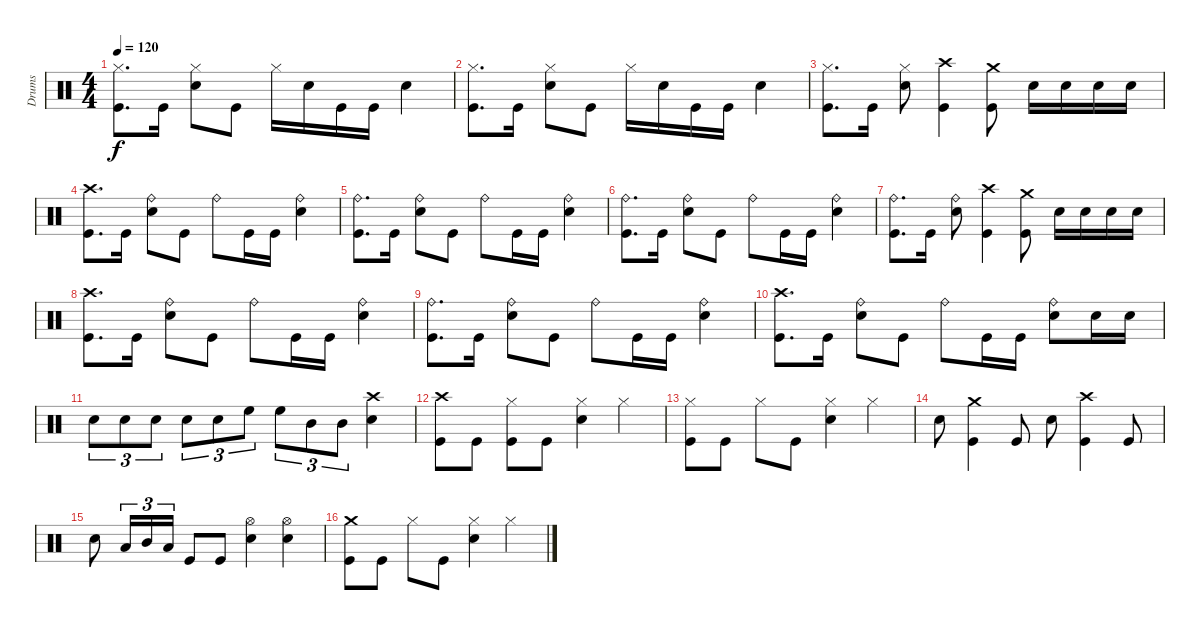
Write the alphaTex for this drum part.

\track ("Drums" "Drums") {instrument percussion}
\staff {score}
\articulation defaults
\ts (4 4)
\tempo 120
\clef neutral
\ks c
("Kick (hit)" "Hi-Hat (closed)").8{d dy f} "Kick (hit)".16 ("Snare (hit) 2" "Hi-Hat (closed)").8 "Kick (hit)".8 "Hi-Hat (closed)".16 "Snare (hit) 2".16 "Kick (hit)".16 "Kick (hit)".16 "Snare (hit) 2".4 |
("Kick (hit)" "Hi-Hat (closed)").8{d} "Kick (hit)".16 ("Snare (hit) 2" "Hi-Hat (closed)").8 "Kick (hit)".8 "Hi-Hat (closed)".16 "Snare (hit) 2".16 "Kick (hit)".16 "Kick (hit)".16 "Snare (hit) 2".4 |
("Kick (hit)" "Hi-Hat (closed)").8{d} "Kick (hit)".16 ("Snare (hit) 2" "Hi-Hat (closed)").8 ("Kick (hit)" "Crash high (hit)").4 ("Kick (hit)" "Crash medium (hit)").8 "Snare (hit) 2".16 "Snare (hit) 2".16 "Snare (hit) 2".16 "Snare (hit) 2".16 |
("Kick (hit)" "Crash high (hit)").8{d} "Kick (hit)".16 ("Snare (hit) 2" "Ride (bell)").8 "Kick (hit)".8 "Ride (bell)".8 "Kick (hit)".16 "Kick (hit)".16 ("Snare (hit) 2" "Ride (bell)").4 |
("Kick (hit)" "Ride (bell)").8{d} "Kick (hit)".16 ("Snare (hit) 2" "Ride (bell)").8 "Kick (hit)".8 "Ride (bell)".8 "Kick (hit)".16 "Kick (hit)".16 ("Snare (hit) 2" "Ride (bell)").4 |
("Kick (hit)" "Ride (bell)").8{d} "Kick (hit)".16 ("Snare (hit) 2" "Ride (bell)").8 "Kick (hit)".8 "Ride (bell)".8 "Kick (hit)".16 "Kick (hit)".16 ("Snare (hit) 2" "Ride (bell)").4 |
("Kick (hit)" "Ride (bell)").8{d} "Kick (hit)".16 ("Snare (hit) 2" "Ride (bell)").8 ("Kick (hit)" "Crash high (hit)").4 ("Kick (hit)" "Crash medium (hit)").8 "Snare (hit) 2".16 "Snare (hit) 2".16 "Snare (hit) 2".16 "Snare (hit) 2".16 |
("Kick (hit)" "Crash high (hit)").8{d} "Kick (hit)".16 ("Snare (hit) 2" "Ride (bell)").8 "Kick (hit)".8 "Ride (bell)".8 "Kick (hit)".16 "Kick (hit)".16 ("Snare (hit) 2" "Ride (bell)").4 |
("Kick (hit)" "Ride (bell)").8{d} "Kick (hit)".16 ("Snare (hit) 2" "Ride (bell)").8 "Kick (hit)".8 "Ride (bell)".8 "Kick (hit)".16 "Kick (hit)".16 ("Snare (hit) 2" "Ride (bell)").4 |
("Kick (hit)" "Crash high (hit)").8{d} "Kick (hit)".16 ("Snare (hit) 2" "Ride (bell)").8 "Kick (hit)".8 "Ride (bell)".8 "Kick (hit)".16 "Kick (hit)".16 ("Snare (hit) 2" "Ride (bell)").8 "Snare (hit) 2".16 "Snare (hit) 2".16 |
"Snare (hit) 2".8{tu (3 2)} "Snare (hit) 2".8{tu (3 2)} "Snare (hit) 2".8{tu (3 2)} "Snare (hit) 2".8{tu (3 2)} "Snare (hit) 2".8{tu (3 2)} "High Floor Tom (hit)".8{tu (3 2)} "High Floor Tom (hit)".8{tu (3 2)} "Mid Tom (hit)".8{tu (3 2)} "Mid Tom (hit)".8{tu (3 2)} ("Snare (hit) 2" "Crash high (hit)").4 |
("Kick (hit)" "Crash high (hit)").8 "Kick (hit)".8 ("Kick (hit)" "Hi-Hat (closed)").8 "Kick (hit)".8 ("Snare (hit) 2" "Hi-Hat (closed)").4 "Hi-Hat (closed)".4 |
("Kick (hit)" "Hi-Hat (closed)").8 "Kick (hit)".8 "Hi-Hat (closed)".8 "Kick (hit)".8 ("Snare (hit) 2" "Hi-Hat (closed)").4 "Hi-Hat (closed)".4 |
"Snare (hit) 2".8 ("Kick (hit)" "Crash medium (hit)").4 "Kick (hit)".8 "Snare (hit) 2".8 ("Kick (hit)" "Crash high (hit)").4 "Kick (hit)".8 |
"Snare (hit) 2".8 "Low Tom (hit)".16{tu (3 2)} "Mid Tom (hit)".16{tu (3 2)} "Low Floor Tom (hit)".16{tu (3 2)} "Kick (hit)".8 "Kick (hit)".8 ("Snare (hit) 2" "Hi-Hat (open)").4 ("Snare (hit) 2" "Hi-Hat (open)").4 |
("Kick (hit)" "Crash medium (hit)").8 "Kick (hit)".8 "Hi-Hat (closed)".8 "Kick (hit)".8 ("Snare (hit) 2" "Hi-Hat (closed)").4 "Hi-Hat (closed)".4
